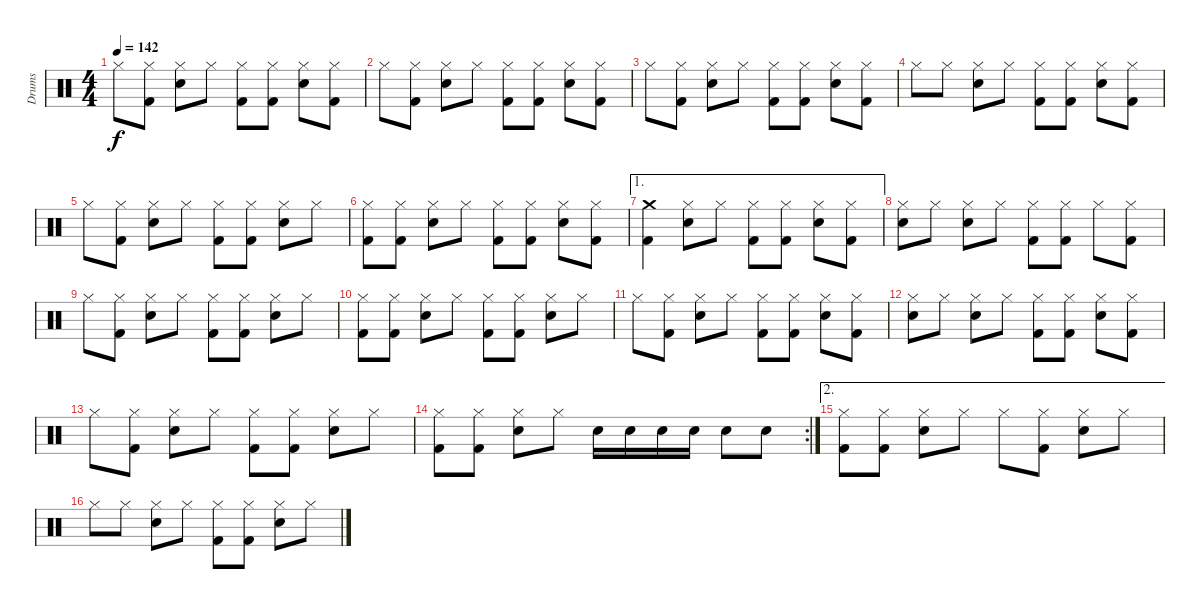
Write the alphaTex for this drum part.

\track ("Drums" "Drums") {instrument percussion}
\staff {score}
\articulation defaults
\ts (4 4)
\tempo 142
\clef neutral
\ks c "Hi-Hat (closed)".8{dy f}
("Hi-Hat (closed)" "Kick (hit) 2").8 ("Hi-Hat (closed)" "Snare (hit) 2").8 "Hi-Hat (closed)".8 ("Hi-Hat (closed)" "Kick (hit) 2").8 ("Hi-Hat (closed)" "Kick (hit) 2").8 ("Hi-Hat (closed)" "Snare (hit) 2").8 ("Hi-Hat (closed)" "Kick (hit) 2").8 |
"Hi-Hat (closed)".8 ("Hi-Hat (closed)" "Kick (hit) 2").8 ("Hi-Hat (closed)" "Snare (hit) 2").8 "Hi-Hat (closed)".8 ("Hi-Hat (closed)" "Kick (hit) 2").8 ("Hi-Hat (closed)" "Kick (hit) 2").8 ("Hi-Hat (closed)" "Snare (hit) 2").8 ("Hi-Hat (closed)" "Kick (hit) 2").8 |
"Hi-Hat (closed)".8 ("Hi-Hat (closed)" "Kick (hit) 2").8 ("Hi-Hat (closed)" "Snare (hit) 2").8 "Hi-Hat (closed)".8 ("Hi-Hat (closed)" "Kick (hit) 2").8 ("Hi-Hat (closed)" "Kick (hit) 2").8 ("Hi-Hat (closed)" "Snare (hit) 2").8 ("Hi-Hat (closed)" "Kick (hit) 2").8 |
"Hi-Hat (closed)".8 "Hi-Hat (closed)".8 ("Hi-Hat (closed)" "Snare (hit) 2").8 "Hi-Hat (closed)".8 ("Hi-Hat (closed)" "Kick (hit) 2").8 ("Hi-Hat (closed)" "Kick (hit) 2").8 ("Hi-Hat (closed)" "Snare (hit) 2").8 ("Hi-Hat (closed)" "Kick (hit) 2").8 |
"Hi-Hat (closed)".8 ("Hi-Hat (closed)" "Kick (hit) 2").8 ("Hi-Hat (closed)" "Snare (hit) 2").8 "Hi-Hat (closed)".8 ("Hi-Hat (closed)" "Kick (hit) 2").8 ("Hi-Hat (closed)" "Kick (hit) 2").8 ("Hi-Hat (closed)" "Snare (hit) 2").8 "Hi-Hat (closed)".8 |
("Hi-Hat (closed)" "Kick (hit) 2").8 ("Hi-Hat (closed)" "Kick (hit) 2").8 ("Hi-Hat (closed)" "Snare (hit) 2").8 "Hi-Hat (closed)".8 ("Hi-Hat (closed)" "Kick (hit) 2").8 ("Hi-Hat (closed)" "Kick (hit) 2").8 ("Hi-Hat (closed)" "Snare (hit) 2").8 ("Hi-Hat (closed)" "Kick (hit) 2").8 |
\ae 1
("Crash medium (hit)" "Kick (hit) 2").4 ("Hi-Hat (closed)" "Snare (hit) 2").8 "Hi-Hat (closed)".8 ("Hi-Hat (closed)" "Kick (hit) 2").8 ("Hi-Hat (closed)" "Kick (hit) 2").8 ("Hi-Hat (closed)" "Snare (hit) 2").8 ("Hi-Hat (closed)" "Kick (hit) 2").8 |
("Hi-Hat (closed)" "Snare (hit) 2").8 "Hi-Hat (closed)".8 ("Hi-Hat (closed)" "Snare (hit) 2").8 "Hi-Hat (closed)".8 ("Hi-Hat (closed)" "Kick (hit) 2").8 ("Hi-Hat (closed)" "Kick (hit) 2").8 "Hi-Hat (closed)".8 ("Hi-Hat (closed)" "Kick (hit) 2").8 |
"Hi-Hat (closed)".8 ("Hi-Hat (closed)" "Kick (hit) 2").8 ("Hi-Hat (closed)" "Snare (hit) 2").8 "Hi-Hat (closed)".8 ("Hi-Hat (closed)" "Kick (hit) 2").8 ("Hi-Hat (closed)" "Kick (hit) 2").8 ("Hi-Hat (closed)" "Snare (hit) 2").8 "Hi-Hat (closed)".8 |
("Hi-Hat (closed)" "Kick (hit) 2").8 ("Hi-Hat (closed)" "Kick (hit) 2").8 ("Hi-Hat (closed)" "Snare (hit) 2").8 "Hi-Hat (closed)".8 ("Hi-Hat (closed)" "Kick (hit) 2").8 ("Hi-Hat (closed)" "Kick (hit) 2").8 ("Hi-Hat (closed)" "Snare (hit) 2").8 "Hi-Hat (closed)".8 |
"Hi-Hat (closed)".8 ("Hi-Hat (closed)" "Kick (hit) 2").8 ("Hi-Hat (closed)" "Snare (hit) 2").8 "Hi-Hat (closed)".8 ("Hi-Hat (closed)" "Kick (hit) 2").8 ("Hi-Hat (closed)" "Kick (hit) 2").8 ("Hi-Hat (closed)" "Snare (hit) 2").8 ("Hi-Hat (closed)" "Kick (hit) 2").8 |
("Hi-Hat (closed)" "Snare (hit) 2").8 "Hi-Hat (closed)".8 ("Hi-Hat (closed)" "Snare (hit) 2").8 "Hi-Hat (closed)".8 ("Hi-Hat (closed)" "Kick (hit) 2").8 ("Hi-Hat (closed)" "Kick (hit) 2").8 ("Hi-Hat (closed)" "Snare (hit) 2").8 ("Hi-Hat (closed)" "Kick (hit) 2").8 |
"Hi-Hat (closed)".8 ("Hi-Hat (closed)" "Kick (hit) 2").8 ("Hi-Hat (closed)" "Snare (hit) 2").8 "Hi-Hat (closed)".8 ("Hi-Hat (closed)" "Kick (hit) 2").8 ("Hi-Hat (closed)" "Kick (hit) 2").8 ("Hi-Hat (closed)" "Snare (hit) 2").8 "Hi-Hat (closed)".8 |
\rc 2
("Hi-Hat (closed)" "Kick (hit) 2").8 ("Hi-Hat (closed)" "Kick (hit) 2").8 ("Hi-Hat (closed)" "Snare (hit) 2").8 "Hi-Hat (closed)".8 "Snare (hit) 2".16 "Snare (hit) 2".16 "Snare (hit) 2".16 "Snare (hit) 2".16 "Snare (hit) 2".8 "Snare (hit) 2".8 |
\ae 2
("Hi-Hat (closed)" "Kick (hit) 2").8 ("Hi-Hat (closed)" "Kick (hit) 2").8 ("Hi-Hat (closed)" "Snare (hit) 2").8 "Hi-Hat (closed)".8 "Hi-Hat (closed)".8 ("Hi-Hat (closed)" "Kick (hit) 2").8 ("Hi-Hat (closed)" "Snare (hit) 2").8 "Hi-Hat (closed)".8 |
"Hi-Hat (closed)".8 "Hi-Hat (closed)".8 ("Hi-Hat (closed)" "Snare (hit) 2").8 "Hi-Hat (closed)".8 ("Hi-Hat (closed)" "Kick (hit) 2").8 ("Hi-Hat (closed)" "Kick (hit) 2").8 ("Hi-Hat (closed)" "Snare (hit) 2").8 "Hi-Hat (closed)".8
